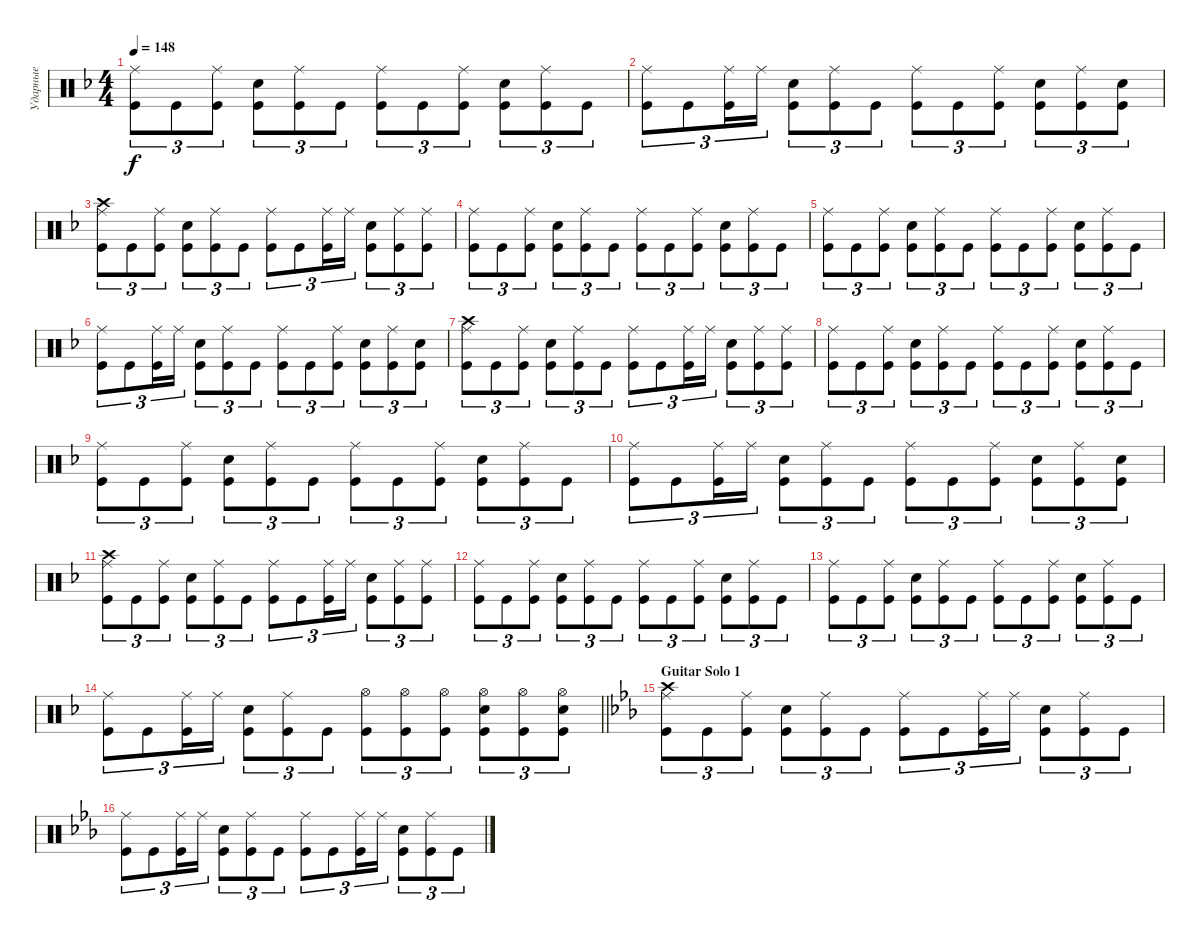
\track ("Ударные" "Ударные") {instrument percussion}
\staff {score}
\articulation defaults
\ts (4 4)
\tempo 148
\clef neutral
\ks dminor
("Kick (hit)" "Ride (middle)").8{tu (3 2) dy f} "Kick (hit)".8{tu (3 2)} ("Kick (hit)" "Ride (middle)").8{tu (3 2)} ("Kick (hit)" "Snare (hit) 2").8{tu (3 2)} ("Kick (hit)" "Ride (middle)").8{tu (3 2)} "Kick (hit)".8{tu (3 2)} ("Kick (hit)" "Ride (middle)").8{tu (3 2)} "Kick (hit)".8{tu (3 2)} ("Kick (hit)" "Ride (middle)").8{tu (3 2)} ("Kick (hit)" "Snare (hit) 2").8{tu (3 2)} ("Kick (hit)" "Ride (middle)").8{tu (3 2)} "Kick (hit)".8{tu (3 2)} |
("Kick (hit)" "Ride (middle)").8{tu (3 2)} "Kick (hit)".8{tu (3 2)} ("Kick (hit)" "Ride (middle)").16{tu (3 2)} "Ride (middle)".16{tu (3 2)} ("Kick (hit)" "Snare (hit) 2").8{tu (3 2)} ("Kick (hit)" "Ride (middle)").8{tu (3 2)} "Kick (hit)".8{tu (3 2)} ("Kick (hit)" "Ride (middle)").8{tu (3 2)} "Kick (hit)".8{tu (3 2)} ("Kick (hit)" "Ride (middle)").8{tu (3 2)} ("Kick (hit)" "Snare (hit) 2").8{tu (3 2)} ("Kick (hit)" "Ride (middle)").8{tu (3 2)} ("Kick (hit)" "Snare (hit) 2").8{tu (3 2)} |
("Kick (hit)" "Ride (middle)" "Crash high (hit)").8{tu (3 2)} "Kick (hit)".8{tu (3 2)} ("Kick (hit)" "Ride (middle)").8{tu (3 2)} ("Kick (hit)" "Snare (hit) 2").8{tu (3 2)} ("Kick (hit)" "Ride (middle)").8{tu (3 2)} "Kick (hit)".8{tu (3 2)} ("Kick (hit)" "Ride (middle)").8{tu (3 2)} "Kick (hit)".8{tu (3 2)} ("Kick (hit)" "Ride (middle)").16{tu (3 2)} "Ride (middle)".16{tu (3 2)} ("Kick (hit)" "Snare (hit) 2").8{tu (3 2)} ("Kick (hit)" "Ride (middle)").8{tu (3 2)} ("Kick (hit)" "Ride (middle)").8{tu (3 2)} |
("Kick (hit)" "Ride (middle)").8{tu (3 2)} "Kick (hit)".8{tu (3 2)} ("Kick (hit)" "Ride (middle)").8{tu (3 2)} ("Kick (hit)" "Snare (hit) 2").8{tu (3 2)} ("Kick (hit)" "Ride (middle)").8{tu (3 2)} "Kick (hit)".8{tu (3 2)} ("Kick (hit)" "Ride (middle)").8{tu (3 2)} "Kick (hit)".8{tu (3 2)} ("Kick (hit)" "Ride (middle)").8{tu (3 2)} ("Kick (hit)" "Snare (hit) 2").8{tu (3 2)} ("Kick (hit)" "Ride (middle)").8{tu (3 2)} "Kick (hit)".8{tu (3 2)} |
("Kick (hit)" "Ride (middle)").8{tu (3 2)} "Kick (hit)".8{tu (3 2)} ("Kick (hit)" "Ride (middle)").8{tu (3 2)} ("Kick (hit)" "Snare (hit) 2").8{tu (3 2)} ("Kick (hit)" "Ride (middle)").8{tu (3 2)} "Kick (hit)".8{tu (3 2)} ("Kick (hit)" "Ride (middle)").8{tu (3 2)} "Kick (hit)".8{tu (3 2)} ("Kick (hit)" "Ride (middle)").8{tu (3 2)} ("Kick (hit)" "Snare (hit) 2").8{tu (3 2)} ("Kick (hit)" "Ride (middle)").8{tu (3 2)} "Kick (hit)".8{tu (3 2)} |
("Kick (hit)" "Ride (middle)").8{tu (3 2)} "Kick (hit)".8{tu (3 2)} ("Kick (hit)" "Ride (middle)").16{tu (3 2)} "Ride (middle)".16{tu (3 2)} ("Kick (hit)" "Snare (hit) 2").8{tu (3 2)} ("Kick (hit)" "Ride (middle)").8{tu (3 2)} "Kick (hit)".8{tu (3 2)} ("Kick (hit)" "Ride (middle)").8{tu (3 2)} "Kick (hit)".8{tu (3 2)} ("Kick (hit)" "Ride (middle)").8{tu (3 2)} ("Kick (hit)" "Snare (hit) 2").8{tu (3 2)} ("Kick (hit)" "Ride (middle)").8{tu (3 2)} ("Kick (hit)" "Snare (hit) 2").8{tu (3 2)} |
("Kick (hit)" "Ride (middle)" "Crash high (hit)").8{tu (3 2)} "Kick (hit)".8{tu (3 2)} ("Kick (hit)" "Ride (middle)").8{tu (3 2)} ("Kick (hit)" "Snare (hit) 2").8{tu (3 2)} ("Kick (hit)" "Ride (middle)").8{tu (3 2)} "Kick (hit)".8{tu (3 2)} ("Kick (hit)" "Ride (middle)").8{tu (3 2)} "Kick (hit)".8{tu (3 2)} ("Kick (hit)" "Ride (middle)").16{tu (3 2)} "Ride (middle)".16{tu (3 2)} ("Kick (hit)" "Snare (hit) 2").8{tu (3 2)} ("Kick (hit)" "Ride (middle)").8{tu (3 2)} ("Kick (hit)" "Ride (middle)").8{tu (3 2)} |
("Kick (hit)" "Ride (middle)").8{tu (3 2)} "Kick (hit)".8{tu (3 2)} ("Kick (hit)" "Ride (middle)").8{tu (3 2)} ("Kick (hit)" "Snare (hit) 2").8{tu (3 2)} ("Kick (hit)" "Ride (middle)").8{tu (3 2)} "Kick (hit)".8{tu (3 2)} ("Kick (hit)" "Ride (middle)").8{tu (3 2)} "Kick (hit)".8{tu (3 2)} ("Kick (hit)" "Ride (middle)").8{tu (3 2)} ("Kick (hit)" "Snare (hit) 2").8{tu (3 2)} ("Kick (hit)" "Ride (middle)").8{tu (3 2)} "Kick (hit)".8{tu (3 2)} |
("Kick (hit)" "Ride (middle)").8{tu (3 2)} "Kick (hit)".8{tu (3 2)} ("Kick (hit)" "Ride (middle)").8{tu (3 2)} ("Kick (hit)" "Snare (hit) 2").8{tu (3 2)} ("Kick (hit)" "Ride (middle)").8{tu (3 2)} "Kick (hit)".8{tu (3 2)} ("Kick (hit)" "Ride (middle)").8{tu (3 2)} "Kick (hit)".8{tu (3 2)} ("Kick (hit)" "Ride (middle)").8{tu (3 2)} ("Kick (hit)" "Snare (hit) 2").8{tu (3 2)} ("Kick (hit)" "Ride (middle)").8{tu (3 2)} "Kick (hit)".8{tu (3 2)} |
("Kick (hit)" "Ride (middle)").8{tu (3 2)} "Kick (hit)".8{tu (3 2)} ("Kick (hit)" "Ride (middle)").16{tu (3 2)} "Ride (middle)".16{tu (3 2)} ("Kick (hit)" "Snare (hit) 2").8{tu (3 2)} ("Kick (hit)" "Ride (middle)").8{tu (3 2)} "Kick (hit)".8{tu (3 2)} ("Kick (hit)" "Ride (middle)").8{tu (3 2)} "Kick (hit)".8{tu (3 2)} ("Kick (hit)" "Ride (middle)").8{tu (3 2)} ("Kick (hit)" "Snare (hit) 2").8{tu (3 2)} ("Kick (hit)" "Ride (middle)").8{tu (3 2)} ("Kick (hit)" "Snare (hit) 2").8{tu (3 2)} |
("Kick (hit)" "Ride (middle)" "Crash high (hit)").8{tu (3 2)} "Kick (hit)".8{tu (3 2)} ("Kick (hit)" "Ride (middle)").8{tu (3 2)} ("Kick (hit)" "Snare (hit) 2").8{tu (3 2)} ("Kick (hit)" "Ride (middle)").8{tu (3 2)} "Kick (hit)".8{tu (3 2)} ("Kick (hit)" "Ride (middle)").8{tu (3 2)} "Kick (hit)".8{tu (3 2)} ("Kick (hit)" "Ride (middle)").16{tu (3 2)} "Ride (middle)".16{tu (3 2)} ("Kick (hit)" "Snare (hit) 2").8{tu (3 2)} ("Kick (hit)" "Ride (middle)").8{tu (3 2)} ("Kick (hit)" "Ride (middle)").8{tu (3 2)} |
("Kick (hit)" "Ride (middle)").8{tu (3 2)} "Kick (hit)".8{tu (3 2)} ("Kick (hit)" "Ride (middle)").8{tu (3 2)} ("Kick (hit)" "Snare (hit) 2").8{tu (3 2)} ("Kick (hit)" "Ride (middle)").8{tu (3 2)} "Kick (hit)".8{tu (3 2)} ("Kick (hit)" "Ride (middle)").8{tu (3 2)} "Kick (hit)".8{tu (3 2)} ("Kick (hit)" "Ride (middle)").8{tu (3 2)} ("Kick (hit)" "Snare (hit) 2").8{tu (3 2)} ("Kick (hit)" "Ride (middle)").8{tu (3 2)} "Kick (hit)".8{tu (3 2)} |
("Kick (hit)" "Ride (middle)").8{tu (3 2)} "Kick (hit)".8{tu (3 2)} ("Kick (hit)" "Ride (middle)").8{tu (3 2)} ("Kick (hit)" "Snare (hit) 2").8{tu (3 2)} ("Kick (hit)" "Ride (middle)").8{tu (3 2)} "Kick (hit)".8{tu (3 2)} ("Kick (hit)" "Ride (middle)").8{tu (3 2)} "Kick (hit)".8{tu (3 2)} ("Kick (hit)" "Ride (middle)").8{tu (3 2)} ("Kick (hit)" "Snare (hit) 2").8{tu (3 2)} ("Kick (hit)" "Ride (middle)").8{tu (3 2)} "Kick (hit)".8{tu (3 2)} |
\barLineRight lightlight
("Kick (hit)" "Ride (middle)").8{tu (3 2)} "Kick (hit)".8{tu (3 2)} ("Kick (hit)" "Ride (middle)").16{tu (3 2)} "Ride (middle)".16{tu (3 2)} ("Kick (hit)" "Snare (hit) 2").8{tu (3 2)} ("Kick (hit)" "Ride (middle)").8{tu (3 2)} "Kick (hit)".8{tu (3 2)} ("Kick (hit)" "Hi-Hat (open)").8{tu (3 2)} ("Kick (hit)" "Hi-Hat (open)").8{tu (3 2)} ("Kick (hit)" "Hi-Hat (open)").8{tu (3 2)} ("Kick (hit)" "Hi-Hat (open)" "Snare (hit) 2").8{tu (3 2)} ("Kick (hit)" "Hi-Hat (open)").8{tu (3 2)} ("Kick (hit)" "Hi-Hat (open)" "Snare (hit) 2").8{tu (3 2)} |
\section ("" "Guitar Solo 1")
\ks cminor
("Kick (hit)" "Ride (middle)" "Crash high (hit)").8{tu (3 2)} "Kick (hit)".8{tu (3 2)} ("Kick (hit)" "Ride (middle)").8{tu (3 2)} ("Kick (hit)" "Snare (hit) 2").8{tu (3 2)} ("Kick (hit)" "Ride (middle)").8{tu (3 2)} "Kick (hit)".8{tu (3 2)} ("Kick (hit)" "Ride (middle)").8{tu (3 2)} "Kick (hit)".8{tu (3 2)} ("Kick (hit)" "Ride (middle)").16{tu (3 2)} "Ride (middle)".16{tu (3 2)} ("Kick (hit)" "Snare (hit) 2").8{tu (3 2)} ("Kick (hit)" "Ride (middle)").8{tu (3 2)} "Kick (hit)".8{tu (3 2)} |
("Kick (hit)" "Ride (middle)").8{tu (3 2)} "Kick (hit)".8{tu (3 2)} ("Kick (hit)" "Ride (middle)").16{tu (3 2)} "Ride (middle)".16{tu (3 2)} ("Kick (hit)" "Snare (hit) 2").8{tu (3 2)} ("Kick (hit)" "Ride (middle)").8{tu (3 2)} "Kick (hit)".8{tu (3 2)} ("Kick (hit)" "Ride (middle)").8{tu (3 2)} "Kick (hit)".8{tu (3 2)} ("Kick (hit)" "Ride (middle)").16{tu (3 2)} "Ride (middle)".16{tu (3 2)} ("Kick (hit)" "Snare (hit) 2").8{tu (3 2)} ("Kick (hit)" "Ride (middle)").8{tu (3 2)} "Kick (hit)".8{tu (3 2)}
